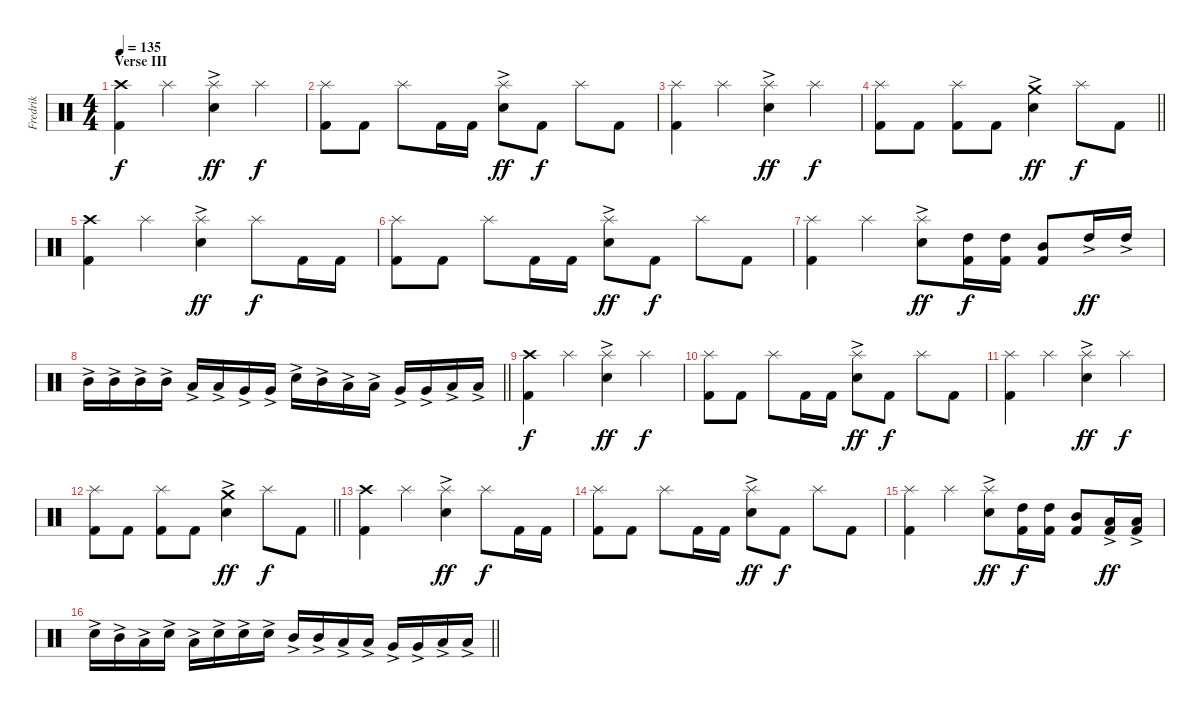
\track ("Fredrik" "Fredrik") {instrument percussion}
\staff {score}
\articulation defaults
\ts (4 4)
\section ("" "Verse III")
\tempo 135
\clef neutral
\ks c
("Kick (hit) 2" "Crash high (hit)").4{dy f} "Splash (hit)".4 ("Snare (hit) 2"{ac} "Splash (hit)").4{dy ff} "Splash (hit)".4{dy f} |
("Kick (hit) 2" "Splash (hit)").8 "Kick (hit) 2".8 "Splash (hit)".8 "Kick (hit) 2".16 "Kick (hit) 2".16 ("Snare (hit) 2"{ac} "Splash (hit)").8{dy ff} "Kick (hit) 2".8{dy f} "Splash (hit)".8 "Kick (hit) 2".8 |
("Kick (hit) 2" "Splash (hit)").4 "Splash (hit)".4 ("Snare (hit) 2"{ac} "Splash (hit)").4{dy ff} "Splash (hit)".4{dy f} |
\barLineRight lightlight
("Kick (hit) 2" "Splash (hit)").8 "Kick (hit) 2".8 ("Kick (hit) 2" "Splash (hit)").8 "Kick (hit) 2".8 ("Snare (hit) 2"{ac} "Crash medium (hit)").4{dy ff} "Splash (hit)".8{dy f} "Kick (hit) 2".8 |
\section ("" "")
("Kick (hit) 2" "Crash high (hit)").4 "Splash (hit)".4 ("Snare (hit) 2"{ac} "Splash (hit)").4{dy ff} "Splash (hit)".8{dy f} "Kick (hit) 2".16 "Kick (hit) 2".16 |
("Kick (hit) 2" "Splash (hit)").8 "Kick (hit) 2".8 "Splash (hit)".8 "Kick (hit) 2".16 "Kick (hit) 2".16 ("Snare (hit) 2"{ac} "Splash (hit)").8{dy ff} "Kick (hit) 2".8{dy f} "Splash (hit)".8 "Kick (hit) 2".8 |
("Kick (hit) 2" "Splash (hit)").4 "Splash (hit)".4 ("Snare (hit) 2"{ac} "Splash (hit)").8{dy ff} ("Kick (hit) 2" "High Tom (hit)").16{dy f} ("Kick (hit) 2" "High Tom (hit)").16 ("Kick (hit) 2" "Mid Tom (hit)").8 "High Tom (hit)"{ac}.16{dy ff} "High Tom (hit)"{ac}.16 |
\barLineRight lightlight "Mid Tom (hit)"{ac}.16 "Mid Tom (hit)"{ac}.16 "Mid Tom (hit)"{ac}.16 "Mid Tom (hit)"{ac}.16 "Low Tom (hit)"{ac}.16 "Low Tom (hit)"{ac}.16 "Very Low Tom (hit)"{ac}.16 "Very Low Tom (hit)"{ac}.16 "Snare (hit) 2"{ac}.16 "Mid Tom (hit)"{ac}.16 "Low Tom (hit)"{ac}.16 "Low Tom (hit)"{ac}.16 "Very Low Tom (hit)"{ac}.16 "Very Low Tom (hit)"{ac}.16 "Low Floor Tom (hit)"{ac}.16 "Low Floor Tom (hit)"{ac}.16
|
\section ("" "")
("Kick (hit) 2" "Crash high (hit)").4{dy f} "Splash (hit)".4 ("Snare (hit) 2"{ac} "Splash (hit)").4{dy ff} "Splash (hit)".4{dy f} |
("Kick (hit) 2" "Splash (hit)").8 "Kick (hit) 2".8 "Splash (hit)".8 "Kick (hit) 2".16 "Kick (hit) 2".16 ("Snare (hit) 2"{ac} "Splash (hit)").8{dy ff} "Kick (hit) 2".8{dy f} "Splash (hit)".8 "Kick (hit) 2".8 |
("Kick (hit) 2" "Splash (hit)").4 "Splash (hit)".4 ("Snare (hit) 2"{ac} "Splash (hit)").4{dy ff} "Splash (hit)".4{dy f} |
\barLineRight lightlight
("Kick (hit) 2" "Splash (hit)").8 "Kick (hit) 2".8 ("Kick (hit) 2" "Splash (hit)").8 "Kick (hit) 2".8 ("Snare (hit) 2"{ac} "Crash medium (hit)").4{dy ff} "Splash (hit)".8{dy f} "Kick (hit) 2".8 |
\section ("" "")
("Kick (hit) 2" "Crash high (hit)").4 "Splash (hit)".4 ("Snare (hit) 2"{ac} "Splash (hit)").4{dy ff} "Splash (hit)".8{dy f} "Kick (hit) 2".16 "Kick (hit) 2".16 |
("Kick (hit) 2" "Splash (hit)").8 "Kick (hit) 2".8 "Splash (hit)".8 "Kick (hit) 2".16 "Kick (hit) 2".16 ("Snare (hit) 2"{ac} "Splash (hit)").8{dy ff} "Kick (hit) 2".8{dy f} "Splash (hit)".8 "Kick (hit) 2".8 |
("Kick (hit) 2" "Splash (hit)").4 "Splash (hit)".4 ("Snare (hit) 2"{ac} "Splash (hit)").8{dy ff} ("Kick (hit) 2" "High Tom (hit)").16{dy f} ("Kick (hit) 2" "High Tom (hit)").16 ("Kick (hit) 2" "Mid Tom (hit)").8 ("Kick (hit) 2" "Low Tom (hit)"{ac}).16{dy ff} ("Kick (hit) 2" "Low Tom (hit)"{ac}).16 |
\barLineRight lightlight "Snare (hit) 2"{ac}.16 "Mid Tom (hit)"{ac}.16 "Low Tom (hit)"{ac}.16 "Snare (hit) 2"{ac}.16 "Low Tom (hit)"{ac}.16 "Snare (hit) 2"{ac}.16 "Snare (hit) 2"{ac}.16 "Snare (hit) 2"{ac}.16 "Mid Tom (hit)"{ac}.16 "Mid Tom (hit)"{ac}.16 "Low Tom (hit)"{ac}.16 "Low Tom (hit)"{ac}.16 "Very Low Tom (hit)"{ac}.16 "Very Low Tom (hit)"{ac}.16 "Low Floor Tom (hit)"{ac}.16 "Low Floor Tom (hit)"{ac}.16
